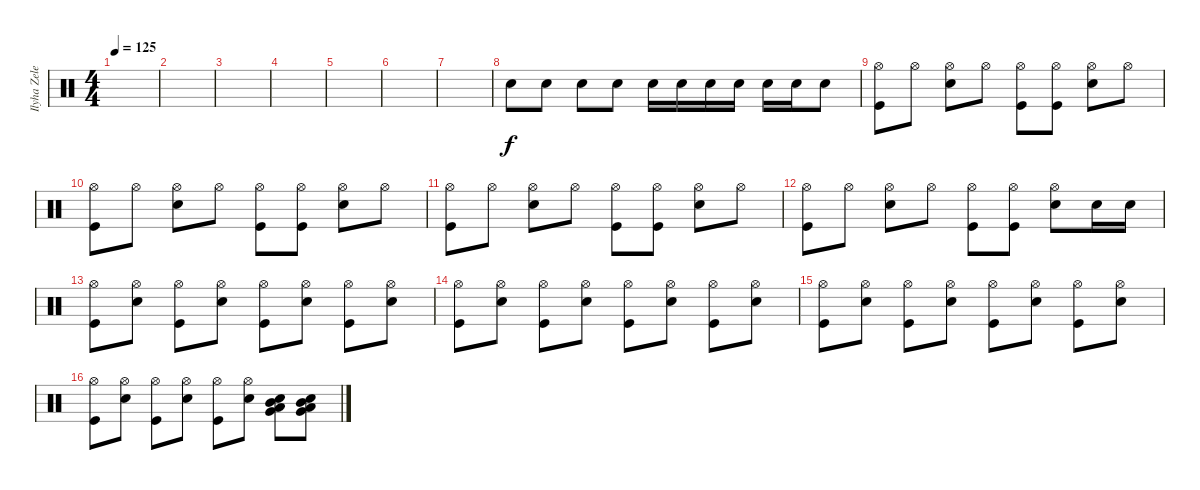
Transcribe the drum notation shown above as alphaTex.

\track ("Ilyha Zelenyi (DRUMS)" "Ilyha Zele") {instrument percussion}
\staff {score}
\articulation defaults
\ts (4 4)
\tempo 125
\clef neutral
\ks c
|
|
|
|
|
|
|
"Electric Snare (hit)".8 "Electric Snare (hit)".8 "Electric Snare (hit)".8 "Electric Snare (hit)".8 "Electric Snare (hit)".16 "Electric Snare (hit)".16 "Electric Snare (hit)".16 "Electric Snare (hit)".16 "Electric Snare (hit)".16 "Electric Snare (hit)".16 "Electric Snare (hit)".8 |
("Hi-Hat (open)" "Kick (hit)").8 "Hi-Hat (open)".8 ("Hi-Hat (open)" "Electric Snare (hit)").8 "Hi-Hat (open)".8 ("Hi-Hat (open)" "Kick (hit)").8 ("Hi-Hat (open)" "Kick (hit)").8 ("Hi-Hat (open)" "Electric Snare (hit)").8 "Hi-Hat (open)".8 |
("Hi-Hat (open)" "Kick (hit)").8 "Hi-Hat (open)".8 ("Hi-Hat (open)" "Electric Snare (hit)").8 "Hi-Hat (open)".8 ("Hi-Hat (open)" "Kick (hit)").8 ("Hi-Hat (open)" "Kick (hit)").8 ("Hi-Hat (open)" "Electric Snare (hit)").8 "Hi-Hat (open)".8 |
("Hi-Hat (open)" "Kick (hit)").8 "Hi-Hat (open)".8 ("Hi-Hat (open)" "Electric Snare (hit)").8 "Hi-Hat (open)".8 ("Hi-Hat (open)" "Kick (hit)").8 ("Hi-Hat (open)" "Kick (hit)").8 ("Hi-Hat (open)" "Electric Snare (hit)").8 "Hi-Hat (open)".8 |
("Hi-Hat (open)" "Kick (hit)").8 "Hi-Hat (open)".8 ("Hi-Hat (open)" "Electric Snare (hit)").8 "Hi-Hat (open)".8 ("Hi-Hat (open)" "Kick (hit)").8 ("Hi-Hat (open)" "Kick (hit)").8 ("Hi-Hat (open)" "Electric Snare (hit)").8 "Electric Snare (hit)".16 "Electric Snare (hit)".16 |
("Hi-Hat (open)" "Kick (hit)").8 ("Hi-Hat (open)" "Electric Snare (hit)").8 ("Hi-Hat (open)" "Kick (hit)").8 ("Hi-Hat (open)" "Electric Snare (hit)").8 ("Hi-Hat (open)" "Kick (hit)").8 ("Hi-Hat (open)" "Electric Snare (hit)").8 ("Hi-Hat (open)" "Kick (hit)").8 ("Hi-Hat (open)" "Electric Snare (hit)").8 |
("Hi-Hat (open)" "Kick (hit)").8 ("Hi-Hat (open)" "Electric Snare (hit)").8 ("Hi-Hat (open)" "Kick (hit)").8 ("Hi-Hat (open)" "Electric Snare (hit)").8 ("Hi-Hat (open)" "Kick (hit)").8 ("Hi-Hat (open)" "Electric Snare (hit)").8 ("Hi-Hat (open)" "Kick (hit)").8 ("Hi-Hat (open)" "Electric Snare (hit)").8 |
("Hi-Hat (open)" "Kick (hit)").8 ("Hi-Hat (open)" "Electric Snare (hit)").8 ("Hi-Hat (open)" "Kick (hit)").8 ("Hi-Hat (open)" "Electric Snare (hit)").8 ("Hi-Hat (open)" "Kick (hit)").8 ("Hi-Hat (open)" "Electric Snare (hit)").8 ("Hi-Hat (open)" "Kick (hit)").8 ("Hi-Hat (open)" "Electric Snare (hit)").8 |
("Hi-Hat (open)" "Kick (hit)").8 ("Hi-Hat (open)" "Electric Snare (hit)").8 ("Hi-Hat (open)" "Kick (hit)").8 ("Hi-Hat (open)" "Electric Snare (hit)").8 ("Hi-Hat (open)" "Kick (hit)").8 ("Hi-Hat (open)" "Electric Snare (hit)").8 ("Mid Tom (hit)" "Very Low Tom (hit)" "Low Floor Tom (hit)" "Electric Snare (hit)").8 ("Mid Tom (hit)" "Very Low Tom (hit)" "Low Floor Tom (hit)" "Electric Snare (hit)").8
